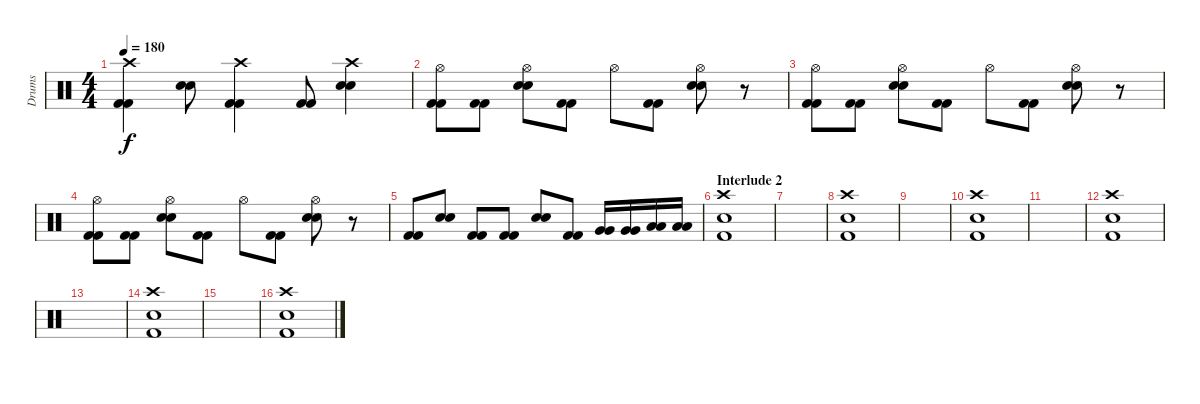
\track ("Drums" "Drums") {instrument percussion}
\staff {score}
\articulation defaults
\ts (4 4)
\tempo 180
\clef neutral
\ks c
("Crash high (hit)" "Kick (hit) 2" "Kick (hit) 2").4{dy f} ("Snare (hit) 2" "Snare (hit) 2").8 ("Crash high (hit)" "Kick (hit) 2" "Kick (hit) 2").4 ("Kick (hit) 2" "Kick (hit) 2").8 ("Crash high (hit)" "Snare (hit) 2" "Snare (hit) 2").4 |
("Hi-Hat (open)" "Kick (hit) 2" "Kick (hit) 2").8 ("Kick (hit) 2" "Kick (hit) 2").8 ("Hi-Hat (open)" "Snare (hit) 2" "Snare (hit) 2").8 ("Kick (hit) 2" "Kick (hit) 2").8 "Hi-Hat (open)".8 ("Kick (hit) 2" "Kick (hit) 2").8 ("Hi-Hat (open)" "Snare (hit) 2" "Snare (hit) 2").8 r.8 |
("Hi-Hat (open)" "Kick (hit) 2" "Kick (hit) 2").8 ("Kick (hit) 2" "Kick (hit) 2").8 ("Hi-Hat (open)" "Snare (hit) 2" "Snare (hit) 2").8 ("Kick (hit) 2" "Kick (hit) 2").8 "Hi-Hat (open)".8 ("Kick (hit) 2" "Kick (hit) 2").8 ("Hi-Hat (open)" "Snare (hit) 2" "Snare (hit) 2").8 r.8 |
("Hi-Hat (open)" "Kick (hit) 2" "Kick (hit) 2").8 ("Kick (hit) 2" "Kick (hit) 2").8 ("Hi-Hat (open)" "Snare (hit) 2" "Snare (hit) 2").8 ("Kick (hit) 2" "Kick (hit) 2").8 "Hi-Hat (open)".8 ("Kick (hit) 2" "Kick (hit) 2").8 ("Hi-Hat (open)" "Snare (hit) 2" "Snare (hit) 2").8 r.8 |
("Kick (hit) 2" "Kick (hit) 2").8 ("Snare (hit) 2" "Snare (hit) 2").8 ("Kick (hit) 2" "Kick (hit) 2").8 ("Kick (hit) 2" "Kick (hit) 2").8 ("Snare (hit) 2" "Snare (hit) 2").8 ("Kick (hit) 2" "Kick (hit) 2").8 ("Very Low Tom (hit)" "Very Low Tom (hit)").16 ("Very Low Tom (hit)" "Very Low Tom (hit)").16 ("Low Floor Tom (hit)" "Low Floor Tom (hit)").16 ("Low Floor Tom (hit)" "Low Floor Tom (hit)").16 |
\section ("" "Interlude 2")
("Crash high (hit)" "Snare (hit) 2" "Kick (hit) 2").1 |
|
("Crash high (hit)" "Snare (hit) 2" "Kick (hit) 2").1 |
|
("Crash high (hit)" "Snare (hit) 2" "Kick (hit) 2").1 |
|
("Crash high (hit)" "Snare (hit) 2" "Kick (hit) 2").1 |
|
("Crash high (hit)" "Snare (hit) 2" "Kick (hit) 2").1 |
|
("Crash high (hit)" "Snare (hit) 2" "Kick (hit) 2").1
